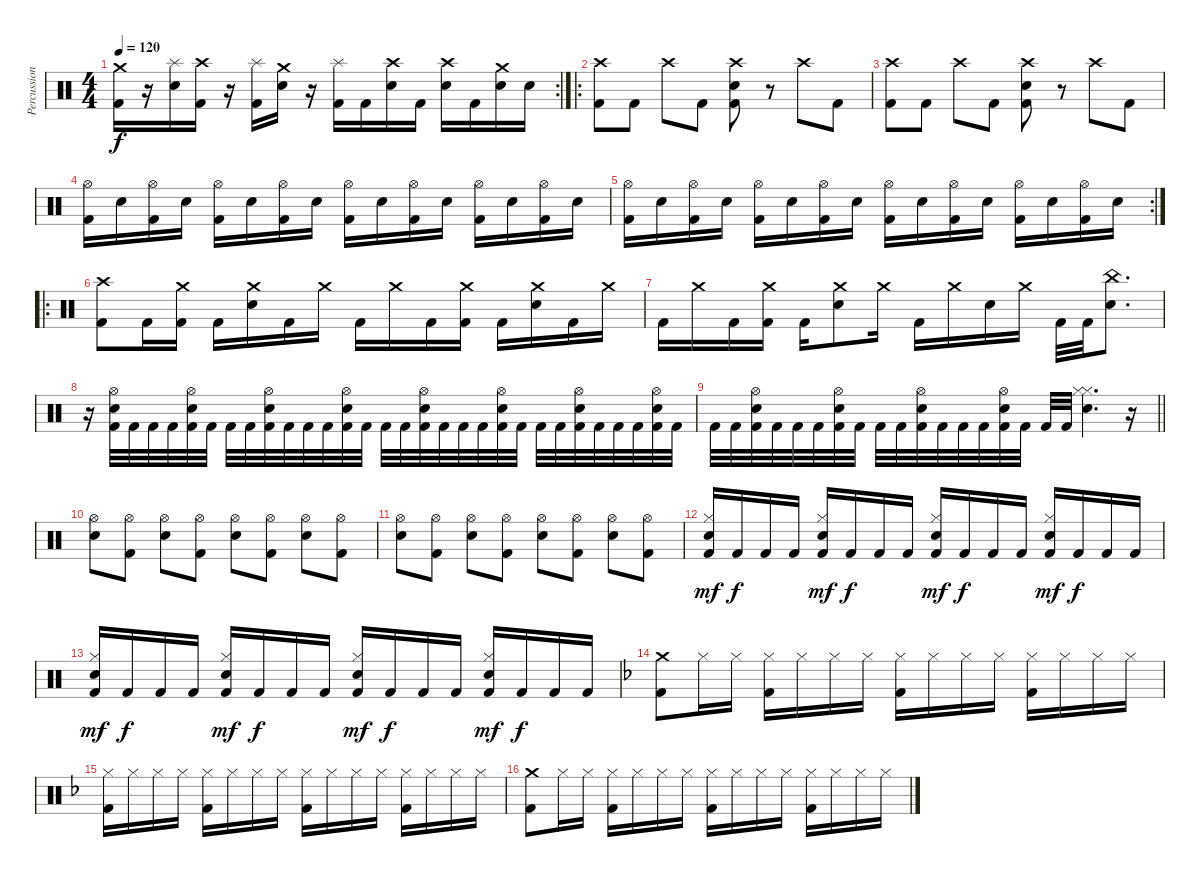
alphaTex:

\track ("Percussions" "Percussion") {instrument percussion}
\staff {score}
\articulation defaults
\rc 2
\ts (4 4)
\tempo 120
\clef neutral
\ks c
("Crash medium (hit)" "Kick (hit) 2").16{dy f} r.16 ("Splash (hit)" "Electric Snare (hit)").16 ("Crash high (hit)" "Kick (hit) 2").16 r.16 ("Splash (hit)" "Kick (hit) 2").16 ("Crash medium (hit)" "Electric Snare (hit)").16 r.16 ("Splash (hit)" "Kick (hit) 2").16 "Kick (hit) 2".16 ("Crash high (hit)" "Electric Snare (hit)").16 "Kick (hit) 2".16 ("Crash high (hit)" "Electric Snare (hit)").16 "Kick (hit) 2".16 ("Crash medium (hit)" "Electric Snare (hit)").16 "Electric Snare (hit)".16 |
\ro
("Crash high (hit)" "Kick (hit) 2").8 "Kick (hit) 2".8 "Crash high (hit)".8 "Kick (hit) 2".8 ("Crash high (hit)" "Electric Snare (hit)" "Kick (hit) 2").8 r.8 "Crash high (hit)".8 "Kick (hit) 2".8 |
("Crash high (hit)" "Kick (hit) 2").8 "Kick (hit) 2".8 "Crash high (hit)".8 "Kick (hit) 2".8 ("Crash high (hit)" "Electric Snare (hit)" "Kick (hit) 2").8 r.8 "Crash high (hit)".8 "Kick (hit) 2".8 |
("Hi-Hat (open)" "Kick (hit) 2").16 "Electric Snare (hit)".16 ("Hi-Hat (open)" "Kick (hit) 2").16 "Electric Snare (hit)".16 ("Hi-Hat (open)" "Kick (hit) 2").16 "Electric Snare (hit)".16 ("Hi-Hat (open)" "Kick (hit) 2").16 "Electric Snare (hit)".16 ("Hi-Hat (open)" "Kick (hit) 2").16 "Electric Snare (hit)".16 ("Hi-Hat (open)" "Kick (hit) 2").16 "Electric Snare (hit)".16 ("Hi-Hat (open)" "Kick (hit) 2").16 "Electric Snare (hit)".16 ("Hi-Hat (open)" "Kick (hit) 2").16 "Electric Snare (hit)".16 |
\rc 2
("Hi-Hat (open)" "Kick (hit) 2").16 "Electric Snare (hit)".16 ("Hi-Hat (open)" "Kick (hit) 2").16 "Electric Snare (hit)".16 ("Hi-Hat (open)" "Kick (hit) 2").16 "Electric Snare (hit)".16 ("Hi-Hat (open)" "Kick (hit) 2").16 "Electric Snare (hit)".16 ("Hi-Hat (open)" "Kick (hit) 2").16 "Electric Snare (hit)".16 ("Hi-Hat (open)" "Kick (hit) 2").16 "Electric Snare (hit)".16 ("Hi-Hat (open)" "Kick (hit) 2").16 "Electric Snare (hit)".16 ("Hi-Hat (open)" "Kick (hit) 2").16 "Electric Snare (hit)".16 |
\ro
("Crash high (hit)" "Kick (hit) 2").8 "Kick (hit) 2".16 ("Crash medium (hit)" "Kick (hit) 2").16 "Kick (hit) 2".16 ("Crash medium (hit)" "Electric Snare (hit)").16 "Kick (hit) 2".16 "Crash medium (hit)".16 "Kick (hit) 2".16 "Crash medium (hit)".16 "Kick (hit) 2".16 ("Crash medium (hit)" "Kick (hit) 2").16 "Kick (hit) 2".16 ("Crash medium (hit)" "Electric Snare (hit)").16 "Kick (hit) 2".16 "Crash medium (hit)".16 |
"Kick (hit) 2".16 "Crash medium (hit)".16 "Kick (hit) 2".16 ("Crash medium (hit)" "Kick (hit) 2").16 "Kick (hit) 2".16 ("Crash medium (hit)" "Electric Snare (hit)").8 "Crash medium (hit)".16 "Kick (hit) 2".16 "Crash medium (hit)".16 "Electric Snare (hit)".16 "Crash medium (hit)".16 "Kick (hit) 2".32 "Kick (hit) 2".32 ("China (hit)" "Electric Snare (hit)").8{d} |
r.16 ("Hi-Hat (open)" "Electric Snare (hit)" "Kick (hit) 2").32 "Kick (hit) 2".32 "Kick (hit) 2".32 "Kick (hit) 2".32 ("Hi-Hat (open)" "Electric Snare (hit)" "Kick (hit) 2").32 "Kick (hit) 2".32 "Kick (hit) 2".32 "Kick (hit) 2".32 ("Hi-Hat (open)" "Electric Snare (hit)" "Kick (hit) 2").32 "Kick (hit) 2".32 "Kick (hit) 2".32 "Kick (hit) 2".32 ("Hi-Hat (open)" "Electric Snare (hit)" "Kick (hit) 2").32 "Kick (hit) 2".32 "Kick (hit) 2".32 "Kick (hit) 2".32 ("Hi-Hat (open)" "Electric Snare (hit)" "Kick (hit) 2").32 "Kick (hit) 2".32 "Kick (hit) 2".32 "Kick (hit) 2".32 ("Hi-Hat (open)" "Electric Snare (hit)" "Kick (hit) 2").32 "Kick (hit) 2".32 "Kick (hit) 2".32 "Kick (hit) 2".32 ("Hi-Hat (open)" "Electric Snare (hit)" "Kick (hit) 2").32 "Kick (hit) 2".32 "Kick (hit) 2".32 "Kick (hit) 2".32 ("Hi-Hat (open)" "Electric Snare (hit)" "Kick (hit) 2").32 "Kick (hit) 2".32 |
\barLineRight lightlight "Kick (hit) 2".32 "Kick (hit) 2".32
("Hi-Hat (open)" "Electric Snare (hit)" "Kick (hit) 2").32 "Kick (hit) 2".32 "Kick (hit) 2".32 "Kick (hit) 2".32 ("Hi-Hat (open)" "Electric Snare (hit)" "Kick (hit) 2").32 "Kick (hit) 2".32 "Kick (hit) 2".32 "Kick (hit) 2".32 ("Hi-Hat (open)" "Electric Snare (hit)" "Kick (hit) 2").32 "Kick (hit) 2".32 "Kick (hit) 2".32 "Kick (hit) 2".32 ("Hi-Hat (open)" "Electric Snare (hit)" "Kick (hit) 2").32 "Kick (hit) 2".32 "Kick (hit) 2".32 "Kick (hit) 2".32 ("Hi-Hat (closed)" "Hi-Hat (closed)" "Electric Snare (hit)").4{d} r.16 |
("Snare (hit) 2" "Hi-Hat (open)").8 ("Kick (hit) 2" "Hi-Hat (open)").8 ("Snare (hit) 2" "Hi-Hat (open)").8 ("Kick (hit) 2" "Hi-Hat (open)").8 ("Snare (hit) 2" "Hi-Hat (open)").8 ("Kick (hit) 2" "Hi-Hat (open)").8 ("Snare (hit) 2" "Hi-Hat (open)").8 ("Kick (hit) 2" "Hi-Hat (open)").8 |
("Snare (hit) 2" "Hi-Hat (open)").8 ("Kick (hit) 2" "Hi-Hat (open)").8 ("Snare (hit) 2" "Hi-Hat (open)").8 ("Kick (hit) 2" "Hi-Hat (open)").8 ("Snare (hit) 2" "Hi-Hat (open)").8 ("Kick (hit) 2" "Hi-Hat (open)").8 ("Snare (hit) 2" "Hi-Hat (open)").8 ("Kick (hit) 2" "Hi-Hat (open)").8 |
("Kick (hit) 2" "Snare (hit) 2" "Hi-Hat (closed)").16{dy mf} "Kick (hit) 2".16{dy f} "Kick (hit) 2".16 "Kick (hit) 2".16 ("Kick (hit) 2" "Snare (hit) 2" "Hi-Hat (closed)").16{dy mf} "Kick (hit) 2".16{dy f} "Kick (hit) 2".16 "Kick (hit) 2".16 ("Kick (hit) 2" "Snare (hit) 2" "Hi-Hat (closed)").16{dy mf} "Kick (hit) 2".16{dy f} "Kick (hit) 2".16 "Kick (hit) 2".16 ("Kick (hit) 2" "Snare (hit) 2" "Hi-Hat (closed)").16{dy mf} "Kick (hit) 2".16{dy f} "Kick (hit) 2".16 "Kick (hit) 2".16 |
("Kick (hit) 2" "Snare (hit) 2" "Hi-Hat (closed)").16{dy mf} "Kick (hit) 2".16{dy f} "Kick (hit) 2".16 "Kick (hit) 2".16 ("Kick (hit) 2" "Snare (hit) 2" "Hi-Hat (closed)").16{dy mf} "Kick (hit) 2".16{dy f} "Kick (hit) 2".16 "Kick (hit) 2".16 ("Kick (hit) 2" "Snare (hit) 2" "Hi-Hat (closed)").16{dy mf} "Kick (hit) 2".16{dy f} "Kick (hit) 2".16 "Kick (hit) 2".16 ("Kick (hit) 2" "Snare (hit) 2" "Hi-Hat (closed)").16{dy mf} "Kick (hit) 2".16{dy f} "Kick (hit) 2".16 "Kick (hit) 2".16 |
\ks f
("Crash medium (hit)" "Kick (hit) 2").8 "Hi-Hat (closed)".16 "Hi-Hat (closed)".16 ("Hi-Hat (closed)" "Kick (hit) 2").16 "Hi-Hat (closed)".16 "Hi-Hat (closed)".16 "Hi-Hat (closed)".16 ("Hi-Hat (closed)" "Kick (hit) 2").16 "Hi-Hat (closed)".16 "Hi-Hat (closed)".16 "Hi-Hat (closed)".16 ("Hi-Hat (closed)" "Kick (hit) 2").16 "Hi-Hat (closed)".16 "Hi-Hat (closed)".16 "Hi-Hat (closed)".16 |
("Hi-Hat (closed)" "Kick (hit) 2").16 "Hi-Hat (closed)".16 "Hi-Hat (closed)".16 "Hi-Hat (closed)".16 ("Hi-Hat (closed)" "Kick (hit) 2").16 "Hi-Hat (closed)".16 "Hi-Hat (closed)".16 "Hi-Hat (closed)".16 ("Hi-Hat (closed)" "Kick (hit) 2").16 "Hi-Hat (closed)".16 "Hi-Hat (closed)".16 "Hi-Hat (closed)".16 ("Hi-Hat (closed)" "Kick (hit) 2").16 "Hi-Hat (closed)".16 "Hi-Hat (closed)".16 "Hi-Hat (closed)".16 |
("Crash medium (hit)" "Kick (hit) 2").8 "Hi-Hat (closed)".16 "Hi-Hat (closed)".16 ("Hi-Hat (closed)" "Kick (hit) 2").16 "Hi-Hat (closed)".16 "Hi-Hat (closed)".16 "Hi-Hat (closed)".16 ("Hi-Hat (closed)" "Kick (hit) 2").16 "Hi-Hat (closed)".16 "Hi-Hat (closed)".16 "Hi-Hat (closed)".16 ("Hi-Hat (closed)" "Kick (hit) 2").16 "Hi-Hat (closed)".16 "Hi-Hat (closed)".16 "Hi-Hat (closed)".16
